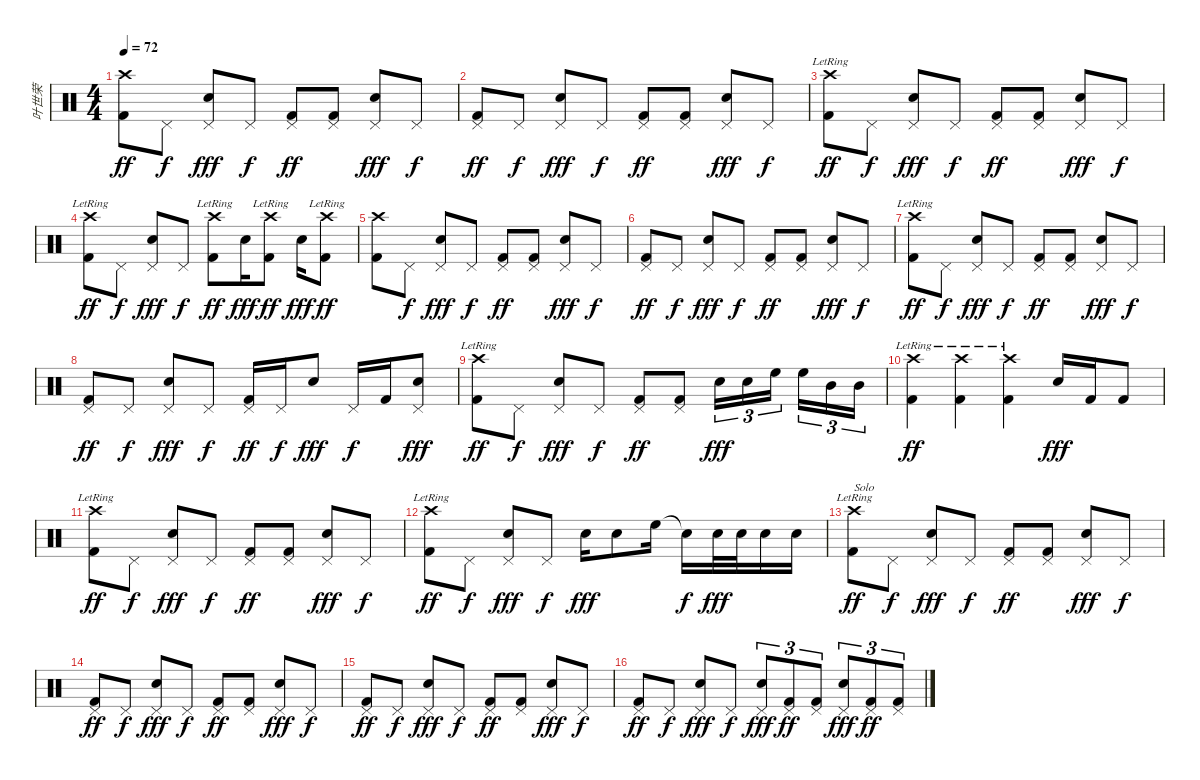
\track ("叶世荣" "叶世荣") {instrument percussion}
\staff {score}
\articulation defaults
\ts (4 4)
\tempo 72
\clef neutral
\ks c
("Crash high (hit)" "Kick (hit) 2").8{dy ff} "Pedal Hi-Hat (hit)".8{dy f} ("Pedal Hi-Hat (hit)" "Electric Snare (hit)").8{dy fff} "Pedal Hi-Hat (hit)".8{dy f} ("Pedal Hi-Hat (hit)" "Kick (hit) 2").8{dy ff} ("Pedal Hi-Hat (hit)" "Kick (hit) 2").8 ("Pedal Hi-Hat (hit)" "Electric Snare (hit)").8{dy fff} "Pedal Hi-Hat (hit)".8{dy f} |
("Pedal Hi-Hat (hit)" "Kick (hit) 2").8{dy ff} "Pedal Hi-Hat (hit)".8{dy f} ("Pedal Hi-Hat (hit)" "Electric Snare (hit)").8{dy fff} "Pedal Hi-Hat (hit)".8{dy f} ("Pedal Hi-Hat (hit)" "Kick (hit) 2").8{dy ff} ("Pedal Hi-Hat (hit)" "Kick (hit) 2").8 ("Pedal Hi-Hat (hit)" "Electric Snare (hit)").8{dy fff} "Pedal Hi-Hat (hit)".8{dy f} |
("Crash high (hit)"{lr} "Kick (hit) 2").8{dy ff} "Pedal Hi-Hat (hit)".8{dy f} ("Pedal Hi-Hat (hit)" "Electric Snare (hit)").8{dy fff} "Pedal Hi-Hat (hit)".8{dy f} ("Pedal Hi-Hat (hit)" "Kick (hit) 2").8{dy ff} ("Pedal Hi-Hat (hit)" "Kick (hit) 2").8 ("Pedal Hi-Hat (hit)" "Electric Snare (hit)").8{dy fff} "Pedal Hi-Hat (hit)".8{dy f} |
("Crash high (hit)"{lr} "Kick (hit) 2").8{dy ff} "Pedal Hi-Hat (hit)".8{dy f} ("Pedal Hi-Hat (hit)" "Electric Snare (hit)").8{dy fff} "Pedal Hi-Hat (hit)".8{dy f} ("Crash high (hit)"{lr} "Kick (hit) 2").8{dy ff} "Electric Snare (hit)".16{dy fff} ("Crash high (hit)"{lr} "Kick (hit) 2").8{dy ff} "Electric Snare (hit)".16{dy fff} ("Crash high (hit)"{lr} "Kick (hit) 2").8{dy ff} |
("Crash high (hit)" "Kick (hit) 2").8 "Pedal Hi-Hat (hit)".8{dy f} ("Pedal Hi-Hat (hit)" "Electric Snare (hit)").8{dy fff} "Pedal Hi-Hat (hit)".8{dy f} ("Pedal Hi-Hat (hit)" "Kick (hit) 2").8{dy ff} ("Pedal Hi-Hat (hit)" "Kick (hit) 2").8 ("Pedal Hi-Hat (hit)" "Electric Snare (hit)").8{dy fff} "Pedal Hi-Hat (hit)".8{dy f} |
("Pedal Hi-Hat (hit)" "Kick (hit) 2").8{dy ff} "Pedal Hi-Hat (hit)".8{dy f} ("Pedal Hi-Hat (hit)" "Electric Snare (hit)").8{dy fff} "Pedal Hi-Hat (hit)".8{dy f} ("Pedal Hi-Hat (hit)" "Kick (hit) 2").8{dy ff} ("Pedal Hi-Hat (hit)" "Kick (hit) 2").8 ("Pedal Hi-Hat (hit)" "Electric Snare (hit)").8{dy fff} "Pedal Hi-Hat (hit)".8{dy f} |
("Crash high (hit)"{lr} "Kick (hit) 2").8{dy ff} "Pedal Hi-Hat (hit)".8{dy f} ("Pedal Hi-Hat (hit)" "Electric Snare (hit)").8{dy fff} "Pedal Hi-Hat (hit)".8{dy f} ("Pedal Hi-Hat (hit)" "Kick (hit) 2").8{dy ff} ("Pedal Hi-Hat (hit)" "Kick (hit) 2").8 ("Pedal Hi-Hat (hit)" "Electric Snare (hit)").8{dy fff} "Pedal Hi-Hat (hit)".8{dy f} |
("Pedal Hi-Hat (hit)" "Kick (hit) 2").8{dy ff} "Pedal Hi-Hat (hit)".8{dy f} ("Pedal Hi-Hat (hit)" "Electric Snare (hit)").8{dy fff} "Pedal Hi-Hat (hit)".8{dy f} ("Pedal Hi-Hat (hit)" "Kick (hit) 2").16{dy ff} "Pedal Hi-Hat (hit)".16{dy f} "Electric Snare (hit)".8{dy fff} "Pedal Hi-Hat (hit)".16{dy f} "Kick (hit) 2".16 ("Pedal Hi-Hat (hit)" "Electric Snare (hit)").8{dy fff} |
("Crash high (hit)"{lr} "Kick (hit) 2").8{dy ff} "Pedal Hi-Hat (hit)".8{dy f} ("Pedal Hi-Hat (hit)" "Electric Snare (hit)").8{dy fff} "Pedal Hi-Hat (hit)".8{dy f} ("Pedal Hi-Hat (hit)" "Kick (hit) 2").8{dy ff} ("Pedal Hi-Hat (hit)" "Kick (hit) 2").8 "Electric Snare (hit)".16{tu (3 2) dy fff} "Electric Snare (hit)".16{tu (3 2)} "High Floor Tom (hit)".16{tu (3 2) beam splitsecondary} "High Floor Tom (hit)".16{tu (3 2)} "Mid Tom (hit)".16{tu (3 2)} "Mid Tom (hit)".16{tu (3 2)} |
("Crash high (hit)"{lr} "Kick (hit) 2").4{dy ff} ("Crash high (hit)"{lr} "Kick (hit) 2").4 ("Crash high (hit)"{lr} "Kick (hit) 2").4 "Electric Snare (hit)".16{dy fff} "Kick (hit) 2".16 "Kick (hit) 2".8 |
("Crash high (hit)"{lr} "Kick (hit) 2").8{dy ff} "Pedal Hi-Hat (hit)".8{dy f} ("Pedal Hi-Hat (hit)" "Electric Snare (hit)").8{dy fff} "Pedal Hi-Hat (hit)".8{dy f} ("Pedal Hi-Hat (hit)" "Kick (hit) 2").8{dy ff} ("Pedal Hi-Hat (hit)" "Kick (hit) 2").8 ("Pedal Hi-Hat (hit)" "Electric Snare (hit)").8{dy fff} "Pedal Hi-Hat (hit)".8{dy f} |
("Crash high (hit)"{lr} "Kick (hit) 2").8{dy ff} "Pedal Hi-Hat (hit)".8{dy f} ("Pedal Hi-Hat (hit)" "Electric Snare (hit)").8{dy fff} "Pedal Hi-Hat (hit)".8{dy f} "Electric Snare (hit)".16{dy fff} "Electric Snare (hit)".8 "High Floor Tom (hit)".16 "Snare (hit)"{t}.16{dy f} "Electric Snare (hit)".32{dy fff} "Electric Snare (hit)".32 "Electric Snare (hit)".16 "Electric Snare (hit)".16 |
("Crash high (hit)"{lr} "Kick (hit) 2").8{txt "Solo" dy ff} "Pedal Hi-Hat (hit)".8{dy f} ("Pedal Hi-Hat (hit)" "Electric Snare (hit)").8{dy fff} "Pedal Hi-Hat (hit)".8{dy f} ("Pedal Hi-Hat (hit)" "Kick (hit) 2").8{dy ff} ("Pedal Hi-Hat (hit)" "Kick (hit) 2").8 ("Pedal Hi-Hat (hit)" "Electric Snare (hit)").8{dy fff} "Pedal Hi-Hat (hit)".8{dy f} |
("Pedal Hi-Hat (hit)" "Kick (hit) 2").8{dy ff} "Pedal Hi-Hat (hit)".8{dy f} ("Pedal Hi-Hat (hit)" "Electric Snare (hit)").8{dy fff} "Pedal Hi-Hat (hit)".8{dy f} ("Pedal Hi-Hat (hit)" "Kick (hit) 2").8{dy ff} ("Pedal Hi-Hat (hit)" "Kick (hit) 2").8 ("Pedal Hi-Hat (hit)" "Electric Snare (hit)").8{dy fff} "Pedal Hi-Hat (hit)".8{dy f} |
("Pedal Hi-Hat (hit)" "Kick (hit) 2").8{dy ff} "Pedal Hi-Hat (hit)".8{dy f} ("Pedal Hi-Hat (hit)" "Electric Snare (hit)").8{dy fff} "Pedal Hi-Hat (hit)".8{dy f} ("Pedal Hi-Hat (hit)" "Kick (hit) 2").8{dy ff} ("Pedal Hi-Hat (hit)" "Kick (hit) 2").8 ("Pedal Hi-Hat (hit)" "Electric Snare (hit)").8{dy fff} "Pedal Hi-Hat (hit)".8{dy f} |
("Pedal Hi-Hat (hit)" "Kick (hit) 2").8{dy ff} "Pedal Hi-Hat (hit)".8{dy f} ("Pedal Hi-Hat (hit)" "Electric Snare (hit)").8{dy fff} "Pedal Hi-Hat (hit)".8{dy f} ("Pedal Hi-Hat (hit)" "Electric Snare (hit)").8{tu (3 2) dy fff} ("Pedal Hi-Hat (hit)" "Kick (hit) 2").8{tu (3 2) dy ff} ("Pedal Hi-Hat (hit)" "Kick (hit) 2").8{tu (3 2)} ("Pedal Hi-Hat (hit)" "Electric Snare (hit)").8{tu (3 2) dy fff} ("Pedal Hi-Hat (hit)" "Kick (hit) 2").8{tu (3 2) dy ff} ("Pedal Hi-Hat (hit)" "Kick (hit) 2").8{tu (3 2)}
